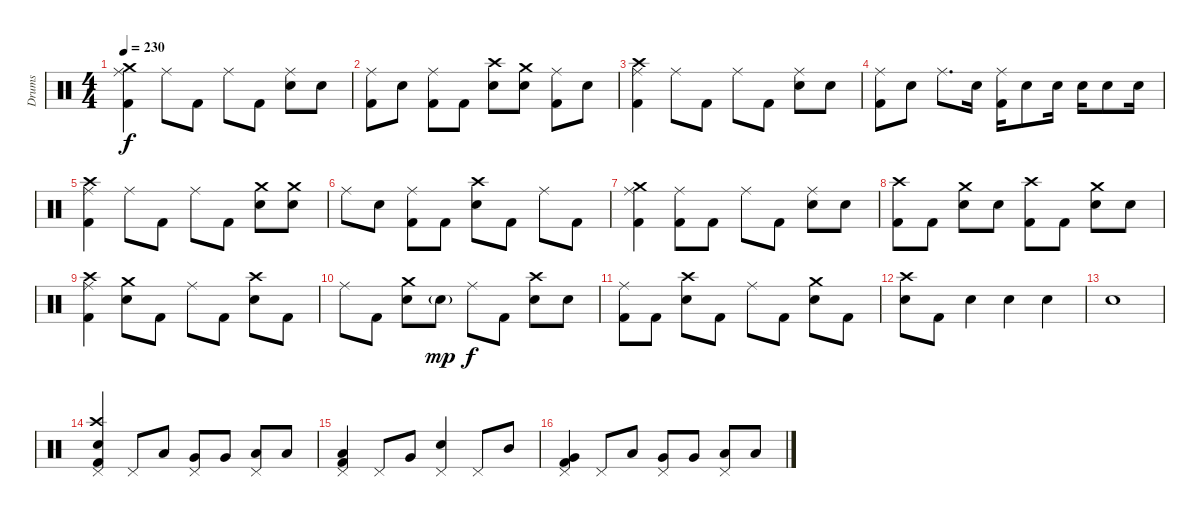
\track ("Drums" "Drums") {instrument percussion}
\staff {score}
\articulation defaults
\ts (4 4)
\tempo 230
\clef neutral
\ks c
("Crash medium (hit)" "Ride (middle)" "Kick (hit) 2").4{dy f} "Ride (middle)".8 "Kick (hit) 2".8 "Ride (middle)".8 "Kick (hit) 2".8 ("Ride (middle)" "Electric Snare (hit)").8 "Electric Snare (hit)".8 |
("Ride (middle)" "Kick (hit) 2").8 "Electric Snare (hit)".8 ("Ride (middle)" "Kick (hit) 2").8 "Kick (hit) 2".8 ("Crash high (hit)" "Electric Snare (hit)").8 ("Crash medium (hit)" "Electric Snare (hit)").8 ("Ride (middle)" "Kick (hit) 2").8 "Electric Snare (hit)".8 |
("Crash high (hit)" "Ride (middle)" "Kick (hit) 2").4 "Ride (middle)".8 "Kick (hit) 2".8 "Ride (middle)".8 "Kick (hit) 2".8 ("Ride (middle)" "Electric Snare (hit)").8 "Electric Snare (hit)".8 |
("Ride (middle)" "Kick (hit) 2").8 "Electric Snare (hit)".8 "Ride (middle)".8{d} "Electric Snare (hit)".16 ("Ride (middle)" "Kick (hit) 2").16 "Electric Snare (hit)".8 "Electric Snare (hit)".16 "Electric Snare (hit)".16 "Electric Snare (hit)".8 "Electric Snare (hit)".16 |
("Crash high (hit)" "Ride (middle)" "Kick (hit) 2").4 "Ride (middle)".8 "Kick (hit) 2".8 "Ride (middle)".8 "Kick (hit) 2".8 ("Crash medium (hit)" "Electric Snare (hit)").8 ("Crash medium (hit)" "Electric Snare (hit)").8 |
"Ride (middle)".8 "Electric Snare (hit)".8 ("Ride (middle)" "Kick (hit) 2").8 "Kick (hit) 2".8 ("Crash high (hit)" "Electric Snare (hit)").8 "Kick (hit) 2".8 "Ride (middle)".8 "Kick (hit) 2".8 |
("Crash medium (hit)" "Ride (middle)" "Kick (hit) 2").4 ("Ride (middle)" "Kick (hit) 2").8 "Kick (hit) 2".8 "Ride (middle)".8 "Kick (hit) 2".8 ("Ride (middle)" "Electric Snare (hit)").8 "Electric Snare (hit)".8 |
("Crash high (hit)" "Kick (hit) 2").8 "Kick (hit) 2".8 ("Crash medium (hit)" "Electric Snare (hit)").8 "Electric Snare (hit)".8 ("Crash high (hit)" "Kick (hit) 2").8 "Kick (hit) 2".8 ("Crash medium (hit)" "Electric Snare (hit)").8 "Electric Snare (hit)".8 |
("Crash high (hit)" "Ride (middle)" "Kick (hit) 2").4 ("Crash medium (hit)" "Electric Snare (hit)").8 "Kick (hit) 2".8 "Ride (middle)".8 "Kick (hit) 2".8 ("Crash high (hit)" "Electric Snare (hit)").8 "Kick (hit) 2".8 |
"Ride (middle)".8 "Kick (hit) 2".8 ("Crash medium (hit)" "Electric Snare (hit)").8 "Electric Snare (hit)"{g}.8{dy mp} "Ride (middle)".8{dy f} "Kick (hit) 2".8 ("Crash high (hit)" "Electric Snare (hit)").8 "Electric Snare (hit)".8 |
("Ride (middle)" "Kick (hit) 2").8 "Kick (hit) 2".8 ("Crash high (hit)" "Electric Snare (hit)").8 "Kick (hit) 2".8 "Ride (middle)".8 "Kick (hit) 2".8 ("Crash medium (hit)" "Electric Snare (hit)").8 "Kick (hit) 2".8 |
("Crash high (hit)" "Electric Snare (hit)").8 "Kick (hit) 2".8 "Electric Snare (hit)".4 "Electric Snare (hit)".4 "Electric Snare (hit)".4 |
"Electric Snare (hit)".1 |
("Crash high (hit)" "Pedal Hi-Hat (hit)" "Snare (hit)" "Kick (hit) 2").4 "Pedal Hi-Hat (hit)".8 "Low Tom (hit)".8 ("Pedal Hi-Hat (hit)" "Very Low Tom (hit)").8 "Very Low Tom (hit)".8 ("Pedal Hi-Hat (hit)" "Low Floor Tom (hit)").8 "Low Tom (hit)".8 |
("Pedal Hi-Hat (hit)" "Low Floor Tom (hit)" "Kick (hit) 2").4 "Pedal Hi-Hat (hit)".8 "Very Low Tom (hit)".8 ("Pedal Hi-Hat (hit)" "Electric Snare (hit)").4 "Pedal Hi-Hat (hit)".8 "Mid Tom (hit)".8 |
("Pedal Hi-Hat (hit)" "Very Low Tom (hit)" "Kick (hit) 2").4 "Pedal Hi-Hat (hit)".8 "Low Tom (hit)".8 ("Pedal Hi-Hat (hit)" "Very Low Tom (hit)").8 "Very Low Tom (hit)".8 ("Pedal Hi-Hat (hit)" "Low Floor Tom (hit)").8 "Low Tom (hit)".8
